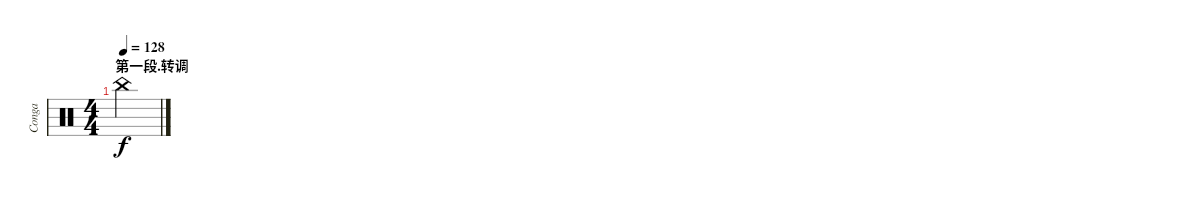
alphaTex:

\track ("Conga" "Conga") {instrument percussion}
\staff {score}
\articulation defaults
\ts (4 4)
\section ("" "第一段.转调")
\tempo 128
\clef neutral
\ks c "China (hit)".4{dy f}
